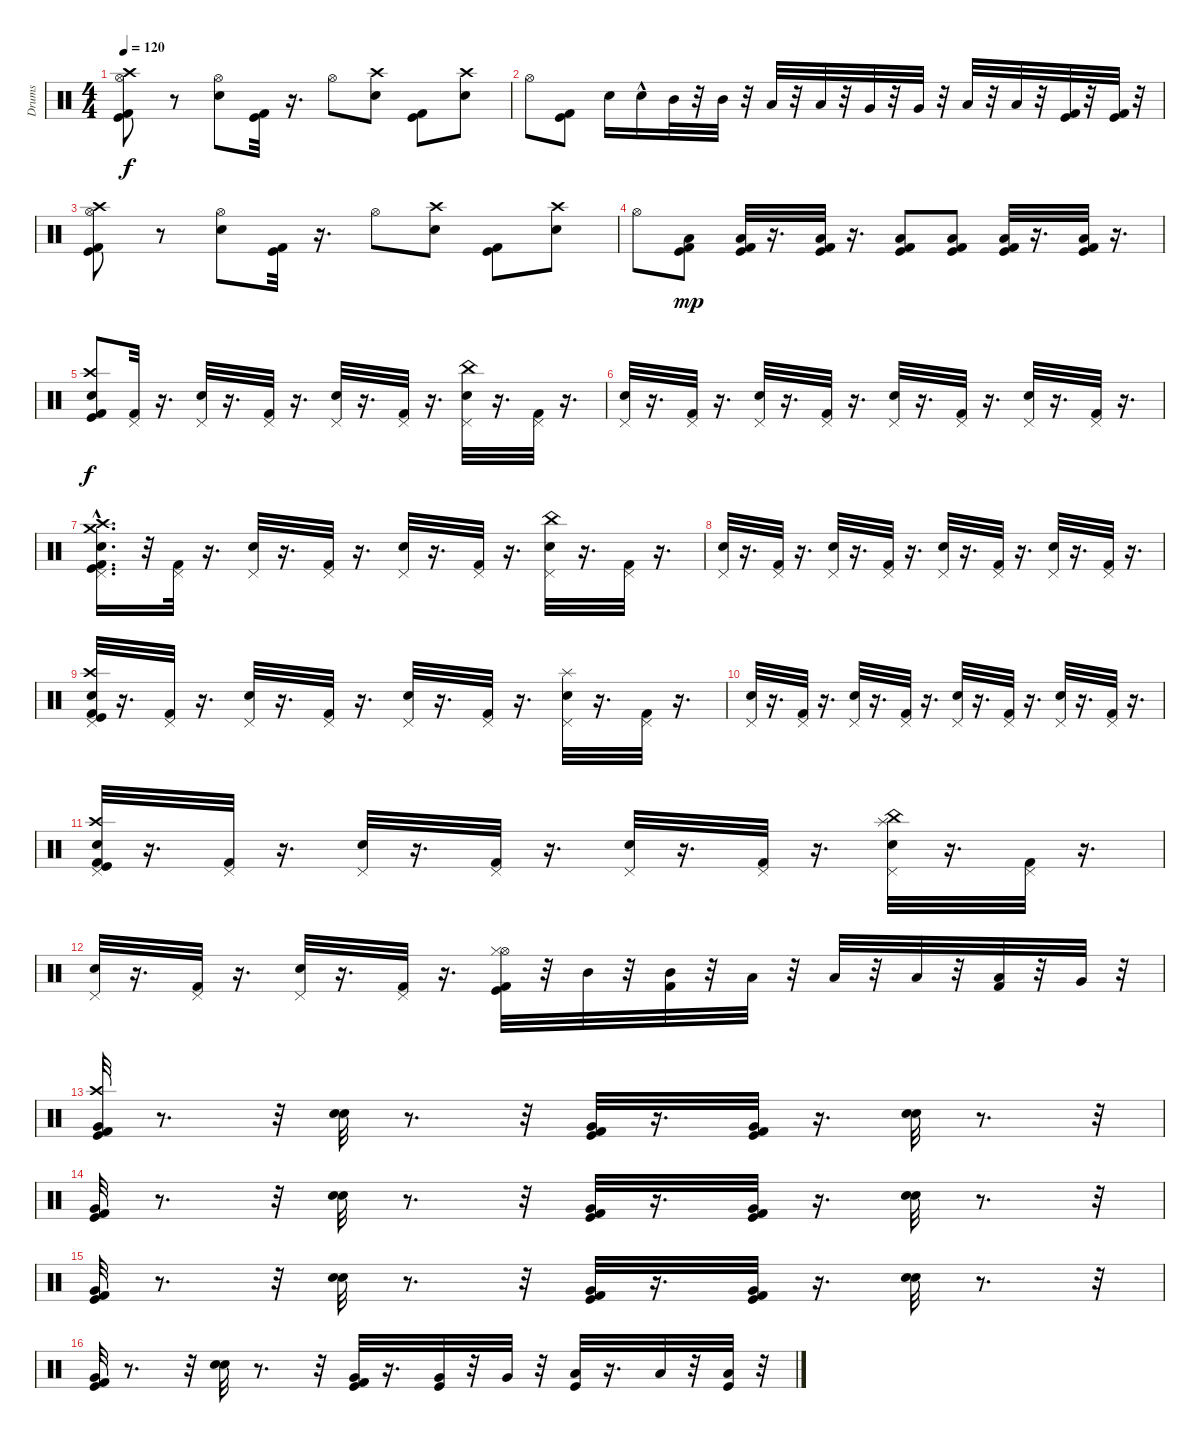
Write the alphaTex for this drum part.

\track ("Drums" "Drums") {instrument percussion}
\staff {score}
\articulation defaults
\ts (4 4)
\tempo 120
\clef neutral
\ks c
("Hi-Hat (open)" "Kick (hit)" "Kick (hit) 2" "Crash high (hit)").8{dy f} r.8 ("Hi-Hat (open)" "Snare (hit) 2").8 ("Kick (hit) 2" "Kick (hit)").32 r.16{d} "Hi-Hat (open)".8 ("Snare (hit) 2" "Crash high (hit)").8 ("Kick (hit)" "Kick (hit) 2").8 ("Crash high (hit)" "Snare (hit) 2").8 |
"Hi-Hat (open)".8 ("Kick (hit)" "Kick (hit) 2").8 "Snare (hit) 2".16 "Snare (hit) 2"{hac}.16 "Mid Tom (hit)".32 r.32 "Mid Tom (hit)".32 r.32 "Low Tom (hit)".32 r.32 "Low Tom (hit)".32 r.32 "Very Low Tom (hit)".32 r.32 "Very Low Tom (hit)".32 r.32 "Low Floor Tom (hit)".32 r.32 "Low Floor Tom (hit)".32 r.32 ("Kick (hit) 2" "Kick (hit)").32 r.32 ("Kick (hit)" "Kick (hit) 2").32 r.32 |
("Kick (hit) 2" "Hi-Hat (open)" "Crash high (hit)" "Kick (hit)").8 r.8 ("Snare (hit) 2" "Hi-Hat (open)").8 ("Kick (hit) 2" "Kick (hit)").32 r.16{d} "Hi-Hat (open)".8 ("Snare (hit) 2" "Crash high (hit)").8 ("Kick (hit) 2" "Kick (hit)").8 ("Crash high (hit)" "Snare (hit) 2").8 |
"Hi-Hat (open)".8 ("Low Floor Tom (hit)" "Kick (hit)" "Kick (hit) 2").8{dy mp} ("Low Floor Tom (hit)" "Kick (hit)" "Kick (hit) 2").32 r.16{d} ("Low Floor Tom (hit)" "Kick (hit)" "Kick (hit) 2").32 r.16{d} ("Low Floor Tom (hit)" "Kick (hit) 2" "Kick (hit)").8 ("Low Floor Tom (hit)" "Kick (hit)" "Kick (hit) 2").8 ("Low Floor Tom (hit)" "Kick (hit)" "Kick (hit) 2").32 r.16{d} ("Low Floor Tom (hit)" "Kick (hit)" "Kick (hit) 2").32 r.16{d} |
("Crash high (hit)" "Kick (hit)" "Snare (hit) 2" "Kick (hit) 2").8{dy f} ("Pedal Hi-Hat (hit)" "Kick (hit) 2").32 r.16{d} ("Pedal Hi-Hat (hit)" "Snare (hit) 2").32 r.16{d} ("Pedal Hi-Hat (hit)" "Kick (hit) 2").32 r.16{d} ("Pedal Hi-Hat (hit)" "Snare (hit) 2").32 r.16{d} ("Pedal Hi-Hat (hit)" "Kick (hit) 2").32 r.16{d} ("Pedal Hi-Hat (hit)" "China (hit)" "Snare (hit) 2").32 r.16{d} ("Kick (hit) 2" "Pedal Hi-Hat (hit)").32 r.16{d} |
("Snare (hit) 2" "Pedal Hi-Hat (hit)").32 r.16{d} ("Kick (hit) 2" "Pedal Hi-Hat (hit)").32 r.16{d} ("Snare (hit) 2" "Pedal Hi-Hat (hit)").32 r.16{d} ("Pedal Hi-Hat (hit)" "Kick (hit) 2").32 r.16{d} ("Pedal Hi-Hat (hit)" "Snare (hit) 2").32 r.16{d} ("Kick (hit) 2" "Pedal Hi-Hat (hit)").32 r.16{d} ("Snare (hit) 2" "Pedal Hi-Hat (hit)").32 r.16{d} ("Kick (hit) 2" "Pedal Hi-Hat (hit)").32 r.16{d} |
("Pedal Hi-Hat (hit)" "Snare (hit) 2" "Crash medium (hit)" "Crash high (hit)"{hac} "Kick (hit)" "Kick (hit) 2").16{d} r.32 ("Pedal Hi-Hat (hit)" "Kick (hit) 2").32 r.16{d} ("Pedal Hi-Hat (hit)" "Snare (hit) 2").32 r.16{d} ("Kick (hit) 2" "Pedal Hi-Hat (hit)").32 r.16{d} ("Pedal Hi-Hat (hit)" "Snare (hit) 2").32 r.16{d} ("Pedal Hi-Hat (hit)" "Kick (hit) 2").32 r.16{d} ("Pedal Hi-Hat (hit)" "China (hit)" "Snare (hit) 2").32 r.16{d} ("Kick (hit) 2" "Pedal Hi-Hat (hit)").32 r.16{d} |
("Snare (hit) 2" "Pedal Hi-Hat (hit)").32 r.16{d} ("Kick (hit) 2" "Pedal Hi-Hat (hit)").32 r.16{d} ("Pedal Hi-Hat (hit)" "Snare (hit) 2").32 r.16{d} ("Kick (hit) 2" "Pedal Hi-Hat (hit)").32 r.16{d} ("Pedal Hi-Hat (hit)" "Snare (hit) 2").32 r.16{d} ("Pedal Hi-Hat (hit)" "Kick (hit) 2").32 r.16{d} ("Snare (hit) 2" "Pedal Hi-Hat (hit)").32 r.16{d} ("Kick (hit) 2" "Pedal Hi-Hat (hit)").32 r.16{d} |
("Crash high (hit)" "Kick (hit)" "Pedal Hi-Hat (hit)" "Snare (hit) 2" "Kick (hit) 2").32 r.16{d} ("Pedal Hi-Hat (hit)" "Kick (hit) 2").32 r.16{d} ("Pedal Hi-Hat (hit)" "Snare (hit) 2").32 r.16{d} ("Kick (hit) 2" "Pedal Hi-Hat (hit)").32 r.16{d} ("Pedal Hi-Hat (hit)" "Snare (hit) 2").32 r.16{d} ("Pedal Hi-Hat (hit)" "Kick (hit) 2").32 r.16{d} ("Splash (hit)" "Pedal Hi-Hat (hit)" "Snare (hit) 2").32 r.16{d} ("Pedal Hi-Hat (hit)" "Kick (hit) 2").32 r.16{d} |
("Snare (hit) 2" "Pedal Hi-Hat (hit)").32 r.16{d} ("Pedal Hi-Hat (hit)" "Kick (hit) 2").32 r.16{d} ("Pedal Hi-Hat (hit)" "Snare (hit) 2").32 r.16{d} ("Pedal Hi-Hat (hit)" "Kick (hit) 2").32 r.16{d} ("Snare (hit) 2" "Pedal Hi-Hat (hit)").32 r.16{d} ("Pedal Hi-Hat (hit)" "Kick (hit) 2").32 r.16{d} ("Pedal Hi-Hat (hit)" "Snare (hit) 2").32 r.16{d} ("Pedal Hi-Hat (hit)" "Kick (hit) 2").32 r.16{d} |
("Pedal Hi-Hat (hit)" "Kick (hit)" "Kick (hit) 2" "Crash high (hit)" "Snare (hit) 2").32 r.16{d} ("Pedal Hi-Hat (hit)" "Kick (hit) 2").32 r.16{d} ("Snare (hit) 2" "Pedal Hi-Hat (hit)").32 r.16{d} ("Pedal Hi-Hat (hit)" "Kick (hit) 2").32 r.16{d} ("Pedal Hi-Hat (hit)" "Snare (hit) 2").32 r.16{d} ("Pedal Hi-Hat (hit)" "Kick (hit) 2").32 r.16{d} ("Snare (hit) 2" "China (hit)" "Pedal Hi-Hat (hit)" "Splash (hit)").32 r.16{d} ("Pedal Hi-Hat (hit)" "Kick (hit) 2").32 r.16{d} |
("Snare (hit) 2" "Pedal Hi-Hat (hit)").32 r.16{d} ("Kick (hit) 2" "Pedal Hi-Hat (hit)").32 r.16{d} ("Pedal Hi-Hat (hit)" "Snare (hit) 2").32 r.16{d} ("Pedal Hi-Hat (hit)" "Kick (hit) 2").32 r.16{d} ("Kick (hit)" "Hi-Hat (open)" "Kick (hit) 2" "Hi-Hat (closed)").32 r.32 "Mid Tom (hit)".32 r.32 ("Kick (hit) 2" "Mid Tom (hit)").32 r.32 "Low Tom (hit)".32 r.32 "Low Tom (hit)".32 r.32 "Low Tom (hit)".32 r.32 ("Kick (hit) 2" "Low Tom (hit)").32 r.32 "Very Low Tom (hit)".32 r.32 |
("Crash high (hit)" "Kick (hit)" "Kick (hit) 2" "Very Low Tom (hit)").32 r.8{d} r.32 ("Snare (hit) 2" "Electric Snare (hit)").32 r.8{d} r.32 ("Kick (hit)" "Kick (hit) 2" "Very Low Tom (hit)").32 r.16{d} ("Kick (hit)" "Very Low Tom (hit)" "Kick (hit) 2").32 r.16{d} ("Snare (hit) 2" "Electric Snare (hit)").32 r.8{d} r.32 |
("Very Low Tom (hit)" "Kick (hit)" "Kick (hit) 2").32 r.8{d} r.32 ("Electric Snare (hit)" "Snare (hit) 2").32 r.8{d} r.32 ("Very Low Tom (hit)" "Kick (hit) 2" "Kick (hit)").32 r.16{d} ("Kick (hit) 2" "Very Low Tom (hit)" "Kick (hit)").32 r.16{d} ("Electric Snare (hit)" "Snare (hit) 2").32 r.8{d} r.32 |
("Very Low Tom (hit)" "Kick (hit) 2" "Kick (hit)").32 r.8{d} r.32 ("Snare (hit) 2" "Electric Snare (hit)").32 r.8{d} r.32 ("Kick (hit)" "Kick (hit) 2" "Very Low Tom (hit)").32 r.16{d} ("Kick (hit)" "Kick (hit) 2" "Very Low Tom (hit)").32 r.16{d} ("Snare (hit) 2" "Electric Snare (hit)").32 r.8{d} r.32 |
("Very Low Tom (hit)" "Kick (hit)" "Kick (hit) 2").32 r.8{d} r.32 ("Snare (hit) 2" "Electric Snare (hit)").32 r.8{d} r.32 ("Kick (hit)" "Very Low Tom (hit)" "Kick (hit) 2").32 r.16{d} ("Kick (hit)" "Very Low Tom (hit)").32 r.32 "Very Low Tom (hit)".32 r.32 ("Low Floor Tom (hit)" "Kick (hit)").32 r.16{d} "Low Floor Tom (hit)".32 r.32 ("Kick (hit)" "Low Floor Tom (hit)").32 r.32
